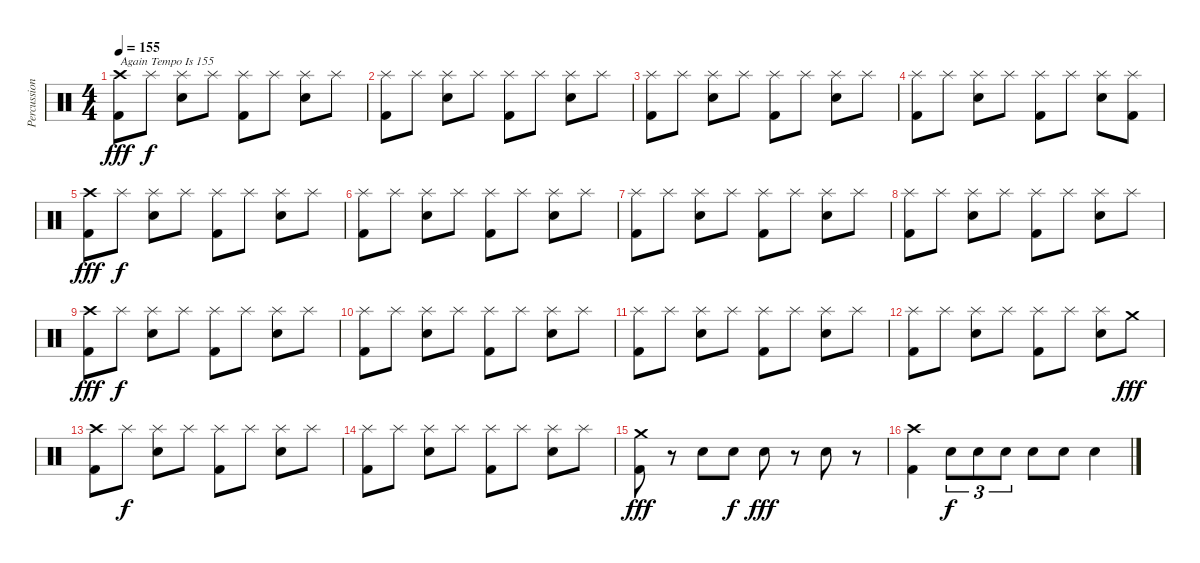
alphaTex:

\track ("Percussion" "Percussion") {instrument percussion}
\staff {score}
\articulation defaults
\ts (4 4)
\tempo 155
\clef neutral
\ks c
("Crash high (hit)" "Kick (hit) 2").8{txt "Again Tempo Is 155" dy fff} "Splash (hit)".8{dy f} ("Splash (hit)" "Electric Snare (hit)").8 "Splash (hit)".8 ("Splash (hit)" "Kick (hit) 2").8 "Splash (hit)".8 ("Splash (hit)" "Electric Snare (hit)").8 "Splash (hit)".8 |
("Splash (hit)" "Kick (hit) 2").8 "Splash (hit)".8 ("Splash (hit)" "Electric Snare (hit)").8 "Splash (hit)".8 ("Splash (hit)" "Kick (hit) 2").8 "Splash (hit)".8 ("Splash (hit)" "Electric Snare (hit)").8 "Splash (hit)".8 |
("Splash (hit)" "Kick (hit) 2").8 "Splash (hit)".8 ("Splash (hit)" "Electric Snare (hit)").8 "Splash (hit)".8 ("Splash (hit)" "Kick (hit) 2").8 "Splash (hit)".8 ("Splash (hit)" "Electric Snare (hit)").8 "Splash (hit)".8 |
("Splash (hit)" "Kick (hit) 2").8 "Splash (hit)".8 ("Splash (hit)" "Electric Snare (hit)").8 "Splash (hit)".8 ("Splash (hit)" "Kick (hit) 2").8 "Splash (hit)".8 ("Splash (hit)" "Electric Snare (hit)").8 ("Splash (hit)" "Kick (hit) 2").8 |
("Crash high (hit)" "Kick (hit) 2").8{dy fff} "Splash (hit)".8{dy f} ("Splash (hit)" "Electric Snare (hit)").8 "Splash (hit)".8 ("Splash (hit)" "Kick (hit) 2").8 "Splash (hit)".8 ("Splash (hit)" "Electric Snare (hit)").8 "Splash (hit)".8 |
("Splash (hit)" "Kick (hit) 2").8 "Splash (hit)".8 ("Splash (hit)" "Electric Snare (hit)").8 "Splash (hit)".8 ("Splash (hit)" "Kick (hit) 2").8 "Splash (hit)".8 ("Splash (hit)" "Electric Snare (hit)").8 "Splash (hit)".8 |
("Splash (hit)" "Kick (hit) 2").8 "Splash (hit)".8 ("Splash (hit)" "Electric Snare (hit)").8 "Splash (hit)".8 ("Splash (hit)" "Kick (hit) 2").8 "Splash (hit)".8 ("Splash (hit)" "Electric Snare (hit)").8 "Splash (hit)".8 |
("Splash (hit)" "Kick (hit) 2").8 "Splash (hit)".8 ("Splash (hit)" "Electric Snare (hit)").8 "Splash (hit)".8 ("Splash (hit)" "Kick (hit) 2").8 "Splash (hit)".8 ("Splash (hit)" "Electric Snare (hit)").8 "Splash (hit)".8 |
("Crash high (hit)" "Kick (hit) 2").8{dy fff} "Splash (hit)".8{dy f} ("Splash (hit)" "Electric Snare (hit)").8 "Splash (hit)".8 ("Splash (hit)" "Kick (hit) 2").8 "Splash (hit)".8 ("Splash (hit)" "Electric Snare (hit)").8 "Splash (hit)".8 |
("Splash (hit)" "Kick (hit) 2").8 "Splash (hit)".8 ("Splash (hit)" "Electric Snare (hit)").8 "Splash (hit)".8 ("Splash (hit)" "Kick (hit) 2").8 "Splash (hit)".8 ("Splash (hit)" "Electric Snare (hit)").8 "Splash (hit)".8 |
("Splash (hit)" "Kick (hit) 2").8 "Splash (hit)".8 ("Splash (hit)" "Electric Snare (hit)").8 "Splash (hit)".8 ("Splash (hit)" "Kick (hit) 2").8 "Splash (hit)".8 ("Splash (hit)" "Electric Snare (hit)").8 "Splash (hit)".8 |
("Splash (hit)" "Kick (hit) 2").8 "Splash (hit)".8 ("Splash (hit)" "Electric Snare (hit)").8 "Splash (hit)".8 ("Splash (hit)" "Kick (hit) 2").8 "Splash (hit)".8 ("Splash (hit)" "Electric Snare (hit)").8 "Crash medium (hit)".8{dy fff} |
("Crash high (hit)" "Kick (hit) 2").8 "Splash (hit)".8{dy f} ("Splash (hit)" "Electric Snare (hit)").8 "Splash (hit)".8 ("Splash (hit)" "Kick (hit) 2").8 "Splash (hit)".8 ("Splash (hit)" "Electric Snare (hit)").8 "Splash (hit)".8 |
("Splash (hit)" "Kick (hit) 2").8 "Splash (hit)".8 ("Splash (hit)" "Electric Snare (hit)").8 "Splash (hit)".8 ("Splash (hit)" "Kick (hit) 2").8 "Splash (hit)".8 ("Splash (hit)" "Electric Snare (hit)").8 "Splash (hit)".8 |
("Crash medium (hit)" "Kick (hit) 2").8{dy fff} r.8 "Electric Snare (hit)".8 "Electric Snare (hit)".8{dy f} "Electric Snare (hit)".8{dy fff} r.8 "Electric Snare (hit)".8 r.8 |
("Crash high (hit)" "Kick (hit) 2").4 "Electric Snare (hit)".8{tu (3 2) dy f} "Electric Snare (hit)".8{tu (3 2)} "Electric Snare (hit)".8{tu (3 2)} "Electric Snare (hit)".8 "Electric Snare (hit)".8 "Electric Snare (hit)".4
